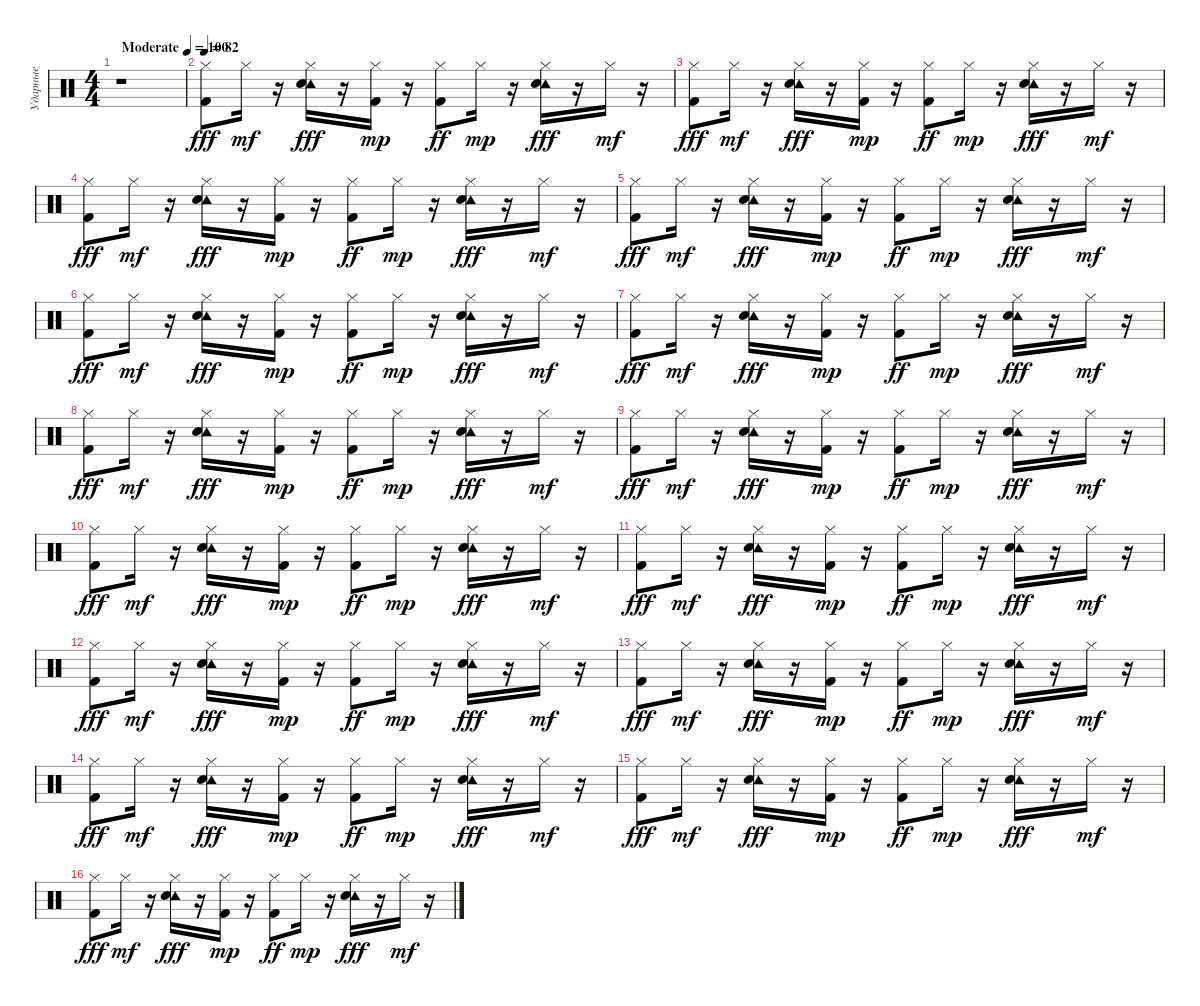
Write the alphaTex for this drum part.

\track ("Ударные" "Ударные") {instrument percussion}
\staff {score}
\articulation defaults
\ts (4 4)
\tempo (100 "Moderate")
\clef neutral
\ks c
r.1{dy fff} |
\tempo 82
("Kick (hit) 2" "Hi-Hat (closed)").8 "Hi-Hat (closed)".16{dy mf} r.16 ("Tambourine (hit)" "Hi-Hat (closed)" "Snare (hit) 2").16{dy fff} r.16 ("Kick (hit) 2" "Hi-Hat (closed)").16{dy mp} r.16 ("Kick (hit) 2" "Hi-Hat (closed)").8{dy ff} "Hi-Hat (closed)".16{dy mp} r.16 ("Tambourine (hit)" "Hi-Hat (closed)" "Snare (hit) 2").16{dy fff} r.16 "Hi-Hat (closed)".16{dy mf} r.16 |
("Kick (hit) 2" "Hi-Hat (closed)").8{dy fff} "Hi-Hat (closed)".16{dy mf} r.16 ("Tambourine (hit)" "Hi-Hat (closed)" "Snare (hit) 2").16{dy fff} r.16 ("Kick (hit) 2" "Hi-Hat (closed)").16{dy mp} r.16 ("Kick (hit) 2" "Hi-Hat (closed)").8{dy ff} "Hi-Hat (closed)".16{dy mp} r.16 ("Tambourine (hit)" "Hi-Hat (closed)" "Snare (hit) 2").16{dy fff} r.16 "Hi-Hat (closed)".16{dy mf} r.16 |
("Kick (hit) 2" "Hi-Hat (closed)").8{dy fff} "Hi-Hat (closed)".16{dy mf} r.16 ("Tambourine (hit)" "Hi-Hat (closed)" "Snare (hit) 2").16{dy fff} r.16 ("Kick (hit) 2" "Hi-Hat (closed)").16{dy mp} r.16 ("Kick (hit) 2" "Hi-Hat (closed)").8{dy ff} "Hi-Hat (closed)".16{dy mp} r.16 ("Tambourine (hit)" "Hi-Hat (closed)" "Snare (hit) 2").16{dy fff} r.16 "Hi-Hat (closed)".16{dy mf} r.16 |
("Kick (hit) 2" "Hi-Hat (closed)").8{dy fff} "Hi-Hat (closed)".16{dy mf} r.16 ("Tambourine (hit)" "Hi-Hat (closed)" "Snare (hit) 2").16{dy fff} r.16 ("Kick (hit) 2" "Hi-Hat (closed)").16{dy mp} r.16 ("Kick (hit) 2" "Hi-Hat (closed)").8{dy ff} "Hi-Hat (closed)".16{dy mp} r.16 ("Tambourine (hit)" "Hi-Hat (closed)" "Snare (hit) 2").16{dy fff} r.16 "Hi-Hat (closed)".16{dy mf} r.16 |
("Kick (hit) 2" "Hi-Hat (closed)").8{dy fff} "Hi-Hat (closed)".16{dy mf} r.16 ("Tambourine (hit)" "Hi-Hat (closed)" "Snare (hit) 2").16{dy fff} r.16 ("Kick (hit) 2" "Hi-Hat (closed)").16{dy mp} r.16 ("Kick (hit) 2" "Hi-Hat (closed)").8{dy ff} "Hi-Hat (closed)".16{dy mp} r.16 ("Tambourine (hit)" "Hi-Hat (closed)" "Snare (hit) 2").16{dy fff} r.16 "Hi-Hat (closed)".16{dy mf} r.16 |
("Kick (hit) 2" "Hi-Hat (closed)").8{dy fff} "Hi-Hat (closed)".16{dy mf} r.16 ("Tambourine (hit)" "Hi-Hat (closed)" "Snare (hit) 2").16{dy fff} r.16 ("Kick (hit) 2" "Hi-Hat (closed)").16{dy mp} r.16 ("Kick (hit) 2" "Hi-Hat (closed)").8{dy ff} "Hi-Hat (closed)".16{dy mp} r.16 ("Tambourine (hit)" "Hi-Hat (closed)" "Snare (hit) 2").16{dy fff} r.16 "Hi-Hat (closed)".16{dy mf} r.16 |
("Kick (hit) 2" "Hi-Hat (closed)").8{dy fff} "Hi-Hat (closed)".16{dy mf} r.16 ("Tambourine (hit)" "Hi-Hat (closed)" "Snare (hit) 2").16{dy fff} r.16 ("Kick (hit) 2" "Hi-Hat (closed)").16{dy mp} r.16 ("Kick (hit) 2" "Hi-Hat (closed)").8{dy ff} "Hi-Hat (closed)".16{dy mp} r.16 ("Tambourine (hit)" "Hi-Hat (closed)" "Snare (hit) 2").16{dy fff} r.16 "Hi-Hat (closed)".16{dy mf} r.16 |
("Kick (hit) 2" "Hi-Hat (closed)").8{dy fff} "Hi-Hat (closed)".16{dy mf} r.16 ("Tambourine (hit)" "Hi-Hat (closed)" "Snare (hit) 2").16{dy fff} r.16 ("Kick (hit) 2" "Hi-Hat (closed)").16{dy mp} r.16 ("Kick (hit) 2" "Hi-Hat (closed)").8{dy ff} "Hi-Hat (closed)".16{dy mp} r.16 ("Tambourine (hit)" "Hi-Hat (closed)" "Snare (hit) 2").16{dy fff} r.16 "Hi-Hat (closed)".16{dy mf} r.16 |
("Kick (hit) 2" "Hi-Hat (closed)").8{dy fff} "Hi-Hat (closed)".16{dy mf} r.16 ("Tambourine (hit)" "Hi-Hat (closed)" "Snare (hit) 2").16{dy fff} r.16 ("Kick (hit) 2" "Hi-Hat (closed)").16{dy mp} r.16 ("Kick (hit) 2" "Hi-Hat (closed)").8{dy ff} "Hi-Hat (closed)".16{dy mp} r.16 ("Tambourine (hit)" "Hi-Hat (closed)" "Snare (hit) 2").16{dy fff} r.16 "Hi-Hat (closed)".16{dy mf} r.16 |
("Kick (hit) 2" "Hi-Hat (closed)").8{dy fff} "Hi-Hat (closed)".16{dy mf} r.16 ("Tambourine (hit)" "Hi-Hat (closed)" "Snare (hit) 2").16{dy fff} r.16 ("Kick (hit) 2" "Hi-Hat (closed)").16{dy mp} r.16 ("Kick (hit) 2" "Hi-Hat (closed)").8{dy ff} "Hi-Hat (closed)".16{dy mp} r.16 ("Tambourine (hit)" "Hi-Hat (closed)" "Snare (hit) 2").16{dy fff} r.16 "Hi-Hat (closed)".16{dy mf} r.16 |
("Kick (hit) 2" "Hi-Hat (closed)").8{dy fff} "Hi-Hat (closed)".16{dy mf} r.16 ("Tambourine (hit)" "Hi-Hat (closed)" "Snare (hit) 2").16{dy fff} r.16 ("Kick (hit) 2" "Hi-Hat (closed)").16{dy mp} r.16 ("Kick (hit) 2" "Hi-Hat (closed)").8{dy ff} "Hi-Hat (closed)".16{dy mp} r.16 ("Tambourine (hit)" "Hi-Hat (closed)" "Snare (hit) 2").16{dy fff} r.16 "Hi-Hat (closed)".16{dy mf} r.16 |
("Kick (hit) 2" "Hi-Hat (closed)").8{dy fff} "Hi-Hat (closed)".16{dy mf} r.16 ("Tambourine (hit)" "Hi-Hat (closed)" "Snare (hit) 2").16{dy fff} r.16 ("Kick (hit) 2" "Hi-Hat (closed)").16{dy mp} r.16 ("Kick (hit) 2" "Hi-Hat (closed)").8{dy ff} "Hi-Hat (closed)".16{dy mp} r.16 ("Tambourine (hit)" "Hi-Hat (closed)" "Snare (hit) 2").16{dy fff} r.16 "Hi-Hat (closed)".16{dy mf} r.16 |
("Kick (hit) 2" "Hi-Hat (closed)").8{dy fff} "Hi-Hat (closed)".16{dy mf} r.16 ("Tambourine (hit)" "Hi-Hat (closed)" "Snare (hit) 2").16{dy fff} r.16 ("Kick (hit) 2" "Hi-Hat (closed)").16{dy mp} r.16 ("Kick (hit) 2" "Hi-Hat (closed)").8{dy ff} "Hi-Hat (closed)".16{dy mp} r.16 ("Tambourine (hit)" "Hi-Hat (closed)" "Snare (hit) 2").16{dy fff} r.16 "Hi-Hat (closed)".16{dy mf} r.16 |
("Kick (hit) 2" "Hi-Hat (closed)").8{dy fff} "Hi-Hat (closed)".16{dy mf} r.16 ("Tambourine (hit)" "Hi-Hat (closed)" "Snare (hit) 2").16{dy fff} r.16 ("Kick (hit) 2" "Hi-Hat (closed)").16{dy mp} r.16 ("Kick (hit) 2" "Hi-Hat (closed)").8{dy ff} "Hi-Hat (closed)".16{dy mp} r.16 ("Tambourine (hit)" "Hi-Hat (closed)" "Snare (hit) 2").16{dy fff} r.16 "Hi-Hat (closed)".16{dy mf} r.16 |
("Kick (hit) 2" "Hi-Hat (closed)").8{dy fff} "Hi-Hat (closed)".16{dy mf} r.16 ("Tambourine (hit)" "Hi-Hat (closed)" "Snare (hit) 2").16{dy fff} r.16 ("Kick (hit) 2" "Hi-Hat (closed)").16{dy mp} r.16 ("Kick (hit) 2" "Hi-Hat (closed)").8{dy ff} "Hi-Hat (closed)".16{dy mp} r.16 ("Tambourine (hit)" "Hi-Hat (closed)" "Snare (hit) 2").16{dy fff} r.16 "Hi-Hat (closed)".16{dy mf} r.16
